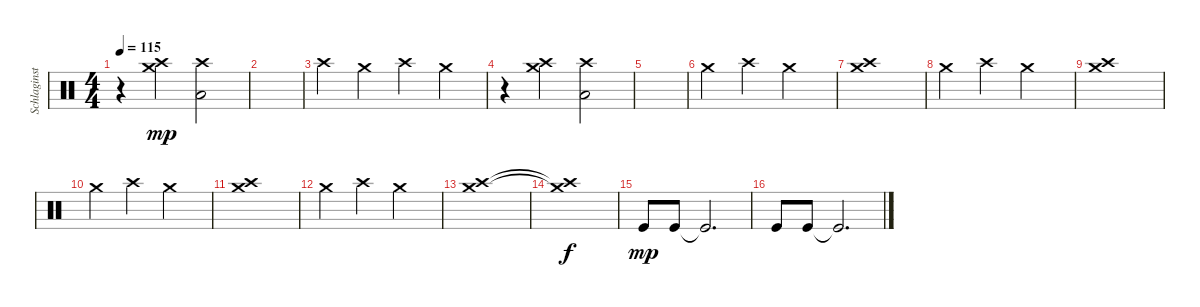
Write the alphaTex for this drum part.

\track ("Schlaginstrumente - Auswahl" "Schlaginst") {instrument percussion}
\staff {score}
\articulation defaults
\ts (4 4)
\tempo 115
\clef neutral
\ks c
r.4{dy mp} ("Crash high (hit)" "Crash medium (hit)").4 ("Crash high (hit)" "Low Floor Tom (hit)").2 |
|
"Crash high (hit)".4 "Crash medium (hit)".4 "Crash high (hit)".4 "Crash medium (hit)".4 |
r.4 ("Crash high (hit)" "Crash medium (hit)").4 ("Crash high (hit)" "Low Floor Tom (hit)").2 |
|
"Crash medium (hit)".4 "Crash high (hit)".4 "Crash medium (hit)".2 |
("Crash high (hit)" "Crash medium (hit)").1 |
"Crash medium (hit)".4 "Crash high (hit)".4 "Crash medium (hit)".2 |
("Crash high (hit)" "Crash medium (hit)").1 |
"Crash medium (hit)".4 "Crash high (hit)".4 "Crash medium (hit)".2 |
("Crash high (hit)" "Crash medium (hit)").1 |
"Crash medium (hit)".4 "Crash high (hit)".4 "Crash medium (hit)".2 |
("Crash high (hit)" "Crash medium (hit)").1 |
("Crash high (hit)"{t} "Crash medium (hit)"{t}).1{dy f} |
"Kick (hit)".8{dy mp} "Kick (hit)".8 "Kick (hit)"{t}.2{d} |
"Kick (hit)".8 "Kick (hit)".8 "Kick (hit)"{t}.2{d}
